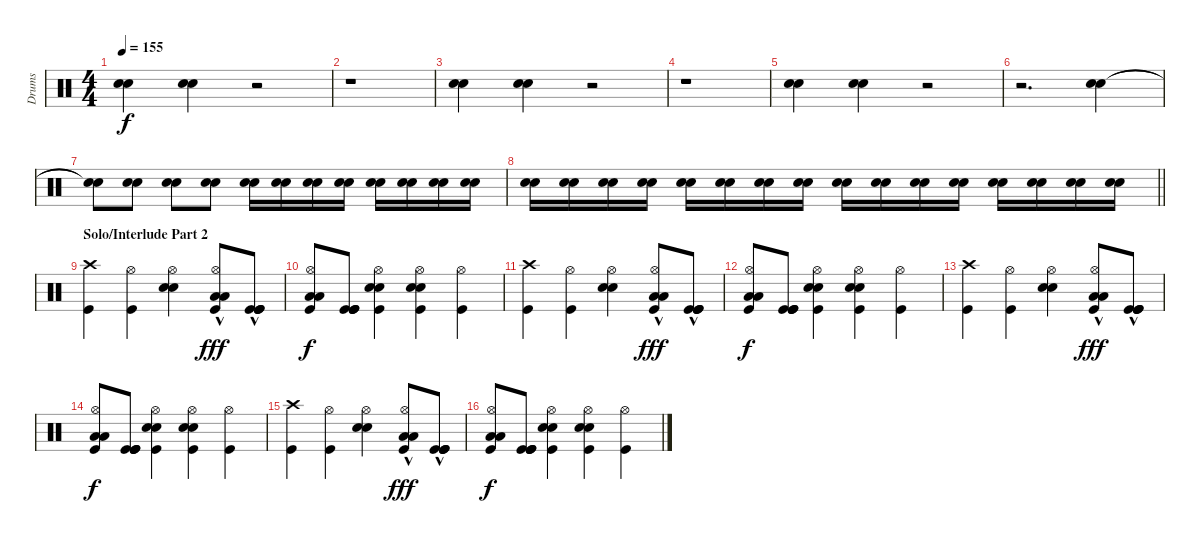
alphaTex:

\track ("Drums" "Drums") {instrument percussion}
\staff {score}
\articulation defaults
\ts (4 4)
\tempo 155
\clef neutral
\ks c
("Snare (hit) 2" "Electric Snare (hit)").4{dy f} ("Snare (hit) 2" "Electric Snare (hit)").4 r.2 |
r.1 |
("Snare (hit) 2" "Electric Snare (hit)").4 ("Snare (hit) 2" "Electric Snare (hit)").4 r.2 |
r.1 |
("Snare (hit) 2" "Electric Snare (hit)").4 ("Snare (hit) 2" "Electric Snare (hit)").4 r.2 |
r.2{d} ("Snare (hit) 2" "Electric Snare (hit)").4 |
("Snare (hit) 2"{t} "Electric Snare (hit)"{t}).8 ("Snare (hit) 2" "Electric Snare (hit)").8 ("Snare (hit) 2" "Electric Snare (hit)").8 ("Snare (hit) 2" "Electric Snare (hit)").8 ("Snare (hit) 2" "Electric Snare (hit)").16 ("Snare (hit) 2" "Electric Snare (hit)").16 ("Snare (hit) 2" "Electric Snare (hit)").16 ("Snare (hit) 2" "Electric Snare (hit)").16 ("Snare (hit) 2" "Electric Snare (hit)").16 ("Snare (hit) 2" "Electric Snare (hit)").16 ("Snare (hit) 2" "Electric Snare (hit)").16 ("Snare (hit) 2" "Electric Snare (hit)").16 |
\barLineRight lightlight
("Snare (hit) 2" "Electric Snare (hit)").16 ("Snare (hit) 2" "Electric Snare (hit)").16 ("Snare (hit) 2" "Electric Snare (hit)").16 ("Snare (hit) 2" "Electric Snare (hit)").16 ("Snare (hit) 2" "Electric Snare (hit)").16 ("Snare (hit) 2" "Electric Snare (hit)").16 ("Snare (hit) 2" "Electric Snare (hit)").16 ("Snare (hit) 2" "Electric Snare (hit)").16 ("Snare (hit) 2" "Electric Snare (hit)").16 ("Snare (hit) 2" "Electric Snare (hit)").16 ("Snare (hit) 2" "Electric Snare (hit)").16 ("Snare (hit) 2" "Electric Snare (hit)").16 ("Snare (hit) 2" "Electric Snare (hit)").16 ("Snare (hit) 2" "Electric Snare (hit)").16 ("Snare (hit) 2" "Electric Snare (hit)").16 ("Snare (hit) 2" "Electric Snare (hit)").16 |
\section ("" "Solo/Interlude Part 2")
("Crash high (hit)" "Kick (hit)").4 ("Hi-Hat (open)" "Kick (hit)").4 ("Hi-Hat (open)" "Snare (hit) 2" "Electric Snare (hit)").4 ("Hi-Hat (open)" "Low Tom (hit)"{hac} "Low Tom (hit)"{hac} "Kick (hit)"{hac}).8{dy fff} ("Kick (hit)"{hac} "Kick (hit)"{hac} "Kick (hit)"{hac} "Kick (hit)"{hac}).8 |
("Hi-Hat (open)" "Low Tom (hit)" "Low Tom (hit)" "Kick (hit)").8{dy f} ("Kick (hit)" "Kick (hit)" "Kick (hit)" "Kick (hit)").8 ("Hi-Hat (open)" "Snare (hit) 2" "Electric Snare (hit)" "Kick (hit)").4 ("Hi-Hat (open)" "Snare (hit) 2" "Electric Snare (hit)" "Kick (hit)").4 ("Hi-Hat (open)" "Kick (hit)").4 |
("Crash high (hit)" "Kick (hit)").4 ("Hi-Hat (open)" "Kick (hit)").4 ("Hi-Hat (open)" "Snare (hit) 2" "Electric Snare (hit)").4 ("Hi-Hat (open)" "Low Tom (hit)"{hac} "Low Tom (hit)"{hac} "Kick (hit)"{hac}).8{dy fff} ("Kick (hit)"{hac} "Kick (hit)"{hac} "Kick (hit)"{hac} "Kick (hit)"{hac}).8 |
("Hi-Hat (open)" "Low Tom (hit)" "Low Tom (hit)" "Kick (hit)").8{dy f} ("Kick (hit)" "Kick (hit)" "Kick (hit)" "Kick (hit)").8 ("Hi-Hat (open)" "Snare (hit) 2" "Electric Snare (hit)" "Kick (hit)").4 ("Hi-Hat (open)" "Snare (hit) 2" "Electric Snare (hit)" "Kick (hit)").4 ("Hi-Hat (open)" "Kick (hit)").4 |
("Crash high (hit)" "Kick (hit)").4 ("Hi-Hat (open)" "Kick (hit)").4 ("Hi-Hat (open)" "Snare (hit) 2" "Electric Snare (hit)").4 ("Hi-Hat (open)" "Low Tom (hit)"{hac} "Low Tom (hit)"{hac} "Kick (hit)"{hac}).8{dy fff} ("Kick (hit)"{hac} "Kick (hit)"{hac} "Kick (hit)"{hac} "Kick (hit)"{hac}).8 |
("Hi-Hat (open)" "Low Tom (hit)" "Low Tom (hit)" "Kick (hit)").8{dy f} ("Kick (hit)" "Kick (hit)" "Kick (hit)" "Kick (hit)").8 ("Hi-Hat (open)" "Snare (hit) 2" "Electric Snare (hit)" "Kick (hit)").4 ("Hi-Hat (open)" "Snare (hit) 2" "Electric Snare (hit)" "Kick (hit)").4 ("Hi-Hat (open)" "Kick (hit)").4 |
("Crash high (hit)" "Kick (hit)").4 ("Hi-Hat (open)" "Kick (hit)").4 ("Hi-Hat (open)" "Snare (hit) 2" "Electric Snare (hit)").4 ("Hi-Hat (open)" "Low Tom (hit)"{hac} "Low Tom (hit)"{hac} "Kick (hit)"{hac}).8{dy fff} ("Kick (hit)"{hac} "Kick (hit)"{hac} "Kick (hit)"{hac} "Kick (hit)"{hac}).8 |
("Hi-Hat (open)" "Low Tom (hit)" "Low Tom (hit)" "Kick (hit)").8{dy f} ("Kick (hit)" "Kick (hit)" "Kick (hit)" "Kick (hit)").8 ("Hi-Hat (open)" "Snare (hit) 2" "Electric Snare (hit)" "Kick (hit)").4 ("Hi-Hat (open)" "Snare (hit) 2" "Electric Snare (hit)" "Kick (hit)").4 ("Hi-Hat (open)" "Kick (hit)").4
